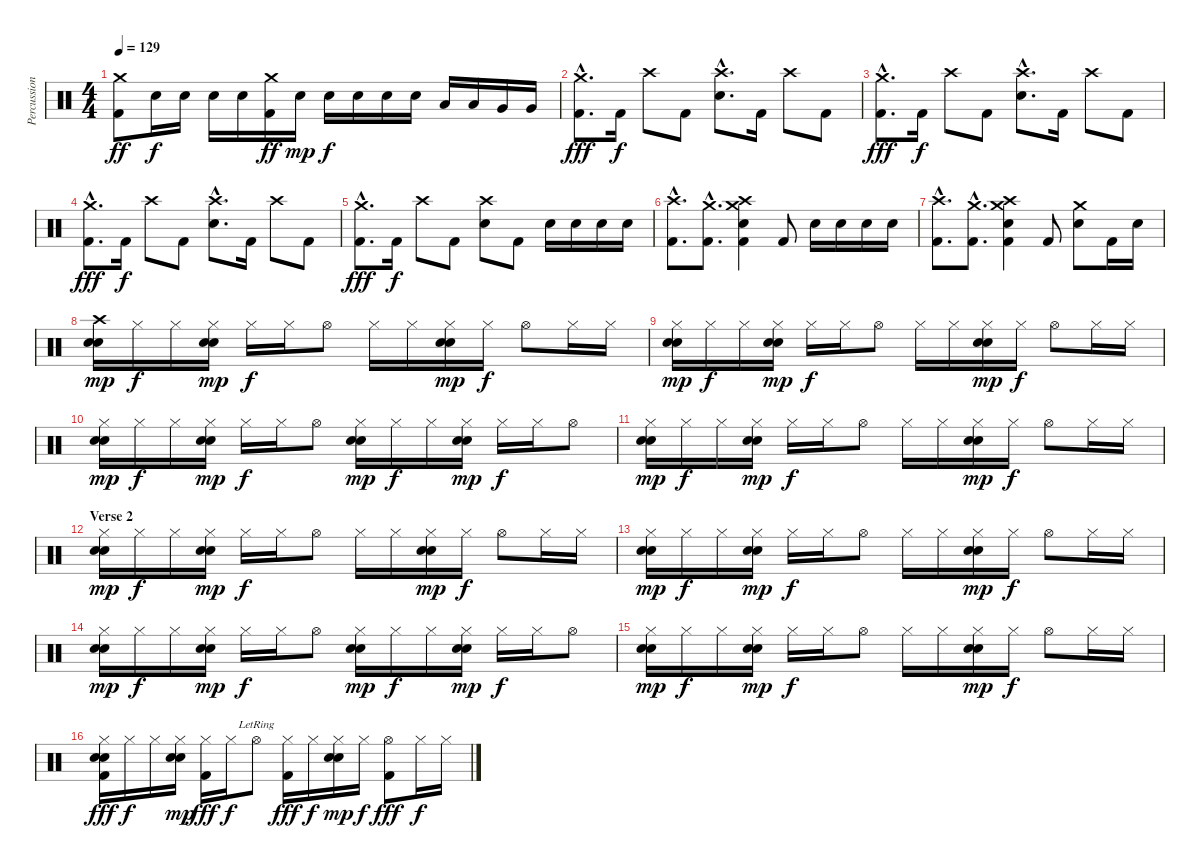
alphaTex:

\track ("Percussions" "Percussion") {instrument percussion}
\staff {score}
\articulation defaults
\ts (4 4)
\tempo 129
\clef neutral
\ks c
("Crash medium (hit)" "Kick (hit) 2").8{dy ff} "Snare (hit) 2".16{dy f} "Snare (hit) 2".16 "Snare (hit) 2".16 "Snare (hit) 2".16 ("Crash medium (hit)" "Kick (hit) 2").16{dy ff} "Snare (hit) 2".16{dy mp} "Snare (hit) 2".16{dy f} "Snare (hit) 2".16 "Snare (hit) 2".16 "Snare (hit) 2".16 "Low Tom (hit)".16 "Low Tom (hit)".16 "Very Low Tom (hit)".16 "Very Low Tom (hit)".16 |
("Crash medium (hit)"{hac} "Kick (hit) 2"{hac}).8{d dy fff} "Kick (hit) 2".16{dy f} "Crash high (hit)".8 "Kick (hit) 2".8 ("Crash high (hit)"{hac} "Snare (hit) 2"{hac}).8{d} "Kick (hit) 2".16 "Crash high (hit)".8 "Kick (hit) 2".8 |
("Crash medium (hit)"{hac} "Kick (hit) 2"{hac}).8{d dy fff} "Kick (hit) 2".16{dy f} "Crash high (hit)".8 "Kick (hit) 2".8 ("Crash high (hit)"{hac} "Snare (hit) 2"{hac}).8{d} "Kick (hit) 2".16 "Crash high (hit)".8 "Kick (hit) 2".8 |
("Crash medium (hit)"{hac} "Kick (hit) 2"{hac}).8{d dy fff} "Kick (hit) 2".16{dy f} "Crash high (hit)".8 "Kick (hit) 2".8 ("Crash high (hit)"{hac} "Snare (hit) 2"{hac}).8{d} "Kick (hit) 2".16 "Crash high (hit)".8 "Kick (hit) 2".8 |
("Crash medium (hit)"{hac} "Kick (hit) 2"{hac}).8{d dy fff} "Kick (hit) 2".16{dy f} "Crash high (hit)".8 "Kick (hit) 2".8 ("Crash high (hit)" "Snare (hit) 2").8 "Kick (hit) 2".8 "Snare (hit) 2".16 "Snare (hit) 2".16 "Snare (hit) 2".16 "Snare (hit) 2".16 |
("Crash high (hit)"{hac} "Kick (hit) 2"{hac}).8{d} ("Crash medium (hit)"{hac} "Kick (hit) 2"{hac}).8{d} ("Crash medium (hit)" "Crash high (hit)" "Snare (hit) 2" "Kick (hit) 2").4 "Kick (hit) 2".8 "Snare (hit) 2".16 "Snare (hit) 2".16 "Snare (hit) 2".16 "Snare (hit) 2".16 |
("Crash high (hit)"{hac} "Kick (hit) 2"{hac}).8{d} ("Crash medium (hit)"{hac} "Kick (hit) 2"{hac}).8{d} ("Crash medium (hit)" "Crash high (hit)" "Snare (hit) 2" "Kick (hit) 2").4 "Kick (hit) 2".8 ("Crash medium (hit)" "Snare (hit) 2").8 "Kick (hit) 2".16 "Snare (hit) 2".16 |
("Crash high (hit)" "Snare (hit) 2" "Electric Snare (hit)").16{dy mp} "Hi-Hat (closed)".16{dy f} "Hi-Hat (closed)".16 ("Hi-Hat (closed)" "Snare (hit) 2" "Electric Snare (hit)").16{dy mp} "Hi-Hat (closed)".16{dy f} "Hi-Hat (closed)".16 "Hi-Hat (open)".8 "Hi-Hat (closed)".16 "Hi-Hat (closed)".16 ("Hi-Hat (closed)" "Snare (hit) 2" "Electric Snare (hit)").16{dy mp} "Hi-Hat (closed)".16{dy f} "Hi-Hat (open)".8 "Hi-Hat (closed)".16 "Hi-Hat (closed)".16 |
("Hi-Hat (closed)" "Snare (hit) 2" "Electric Snare (hit)").16{dy mp} "Hi-Hat (closed)".16{dy f} "Hi-Hat (closed)".16 ("Hi-Hat (closed)" "Snare (hit) 2" "Electric Snare (hit)").16{dy mp} "Hi-Hat (closed)".16{dy f} "Hi-Hat (closed)".16 "Hi-Hat (open)".8 "Hi-Hat (closed)".16 "Hi-Hat (closed)".16 ("Hi-Hat (closed)" "Snare (hit) 2" "Electric Snare (hit)").16{dy mp} "Hi-Hat (closed)".16{dy f} "Hi-Hat (open)".8 "Hi-Hat (closed)".16 "Hi-Hat (closed)".16 |
("Hi-Hat (closed)" "Snare (hit) 2" "Electric Snare (hit)").16{dy mp} "Hi-Hat (closed)".16{dy f} "Hi-Hat (closed)".16 ("Hi-Hat (closed)" "Snare (hit) 2" "Electric Snare (hit)").16{dy mp} "Hi-Hat (closed)".16{dy f} "Hi-Hat (closed)".16 "Hi-Hat (open)".8 ("Hi-Hat (closed)" "Snare (hit) 2" "Electric Snare (hit)").16{dy mp} "Hi-Hat (closed)".16{dy f} "Hi-Hat (closed)".16 ("Hi-Hat (closed)" "Snare (hit) 2" "Electric Snare (hit)").16{dy mp} "Hi-Hat (closed)".16{dy f} "Hi-Hat (closed)".16 "Hi-Hat (open)".8 |
("Hi-Hat (closed)" "Snare (hit) 2" "Electric Snare (hit)").16{dy mp} "Hi-Hat (closed)".16{dy f} "Hi-Hat (closed)".16 ("Hi-Hat (closed)" "Snare (hit) 2" "Electric Snare (hit)").16{dy mp} "Hi-Hat (closed)".16{dy f} "Hi-Hat (closed)".16 "Hi-Hat (open)".8 "Hi-Hat (closed)".16 "Hi-Hat (closed)".16 ("Hi-Hat (closed)" "Snare (hit) 2" "Electric Snare (hit)").16{dy mp} "Hi-Hat (closed)".16{dy f} "Hi-Hat (open)".8 "Hi-Hat (closed)".16 "Hi-Hat (closed)".16 |
\section ("" "Verse 2")
("Hi-Hat (closed)" "Snare (hit) 2" "Electric Snare (hit)").16{dy mp} "Hi-Hat (closed)".16{dy f} "Hi-Hat (closed)".16 ("Hi-Hat (closed)" "Snare (hit) 2" "Electric Snare (hit)").16{dy mp} "Hi-Hat (closed)".16{dy f} "Hi-Hat (closed)".16 "Hi-Hat (open)".8 "Hi-Hat (closed)".16 "Hi-Hat (closed)".16 ("Hi-Hat (closed)" "Snare (hit) 2" "Electric Snare (hit)").16{dy mp} "Hi-Hat (closed)".16{dy f} "Hi-Hat (open)".8 "Hi-Hat (closed)".16 "Hi-Hat (closed)".16 |
("Hi-Hat (closed)" "Snare (hit) 2" "Electric Snare (hit)").16{dy mp} "Hi-Hat (closed)".16{dy f} "Hi-Hat (closed)".16 ("Hi-Hat (closed)" "Snare (hit) 2" "Electric Snare (hit)").16{dy mp} "Hi-Hat (closed)".16{dy f} "Hi-Hat (closed)".16 "Hi-Hat (open)".8 "Hi-Hat (closed)".16 "Hi-Hat (closed)".16 ("Hi-Hat (closed)" "Snare (hit) 2" "Electric Snare (hit)").16{dy mp} "Hi-Hat (closed)".16{dy f} "Hi-Hat (open)".8 "Hi-Hat (closed)".16 "Hi-Hat (closed)".16 |
("Hi-Hat (closed)" "Snare (hit) 2" "Electric Snare (hit)").16{dy mp} "Hi-Hat (closed)".16{dy f} "Hi-Hat (closed)".16 ("Hi-Hat (closed)" "Snare (hit) 2" "Electric Snare (hit)").16{dy mp} "Hi-Hat (closed)".16{dy f} "Hi-Hat (closed)".16 "Hi-Hat (open)".8 ("Hi-Hat (closed)" "Snare (hit) 2" "Electric Snare (hit)").16{dy mp} "Hi-Hat (closed)".16{dy f} "Hi-Hat (closed)".16 ("Hi-Hat (closed)" "Snare (hit) 2" "Electric Snare (hit)").16{dy mp} "Hi-Hat (closed)".16{dy f} "Hi-Hat (closed)".16 "Hi-Hat (open)".8 |
("Hi-Hat (closed)" "Snare (hit) 2" "Electric Snare (hit)").16{dy mp} "Hi-Hat (closed)".16{dy f} "Hi-Hat (closed)".16 ("Hi-Hat (closed)" "Snare (hit) 2" "Electric Snare (hit)").16{dy mp} "Hi-Hat (closed)".16{dy f} "Hi-Hat (closed)".16 "Hi-Hat (open)".8 "Hi-Hat (closed)".16 "Hi-Hat (closed)".16 ("Hi-Hat (closed)" "Snare (hit) 2" "Electric Snare (hit)").16{dy mp} "Hi-Hat (closed)".16{dy f} "Hi-Hat (open)".8 "Hi-Hat (closed)".16 "Hi-Hat (closed)".16 |
("Hi-Hat (closed)" "Snare (hit) 2" "Electric Snare (hit)" "Kick (hit) 2").16{dy fff} "Hi-Hat (closed)".16{dy f} "Hi-Hat (closed)".16 ("Hi-Hat (closed)" "Snare (hit) 2" "Electric Snare (hit)").16{dy mp} ("Hi-Hat (closed)" "Kick (hit) 2").16{dy fff} "Hi-Hat (closed)".16{dy f} "Hi-Hat (open)"{lr}.8 ("Hi-Hat (closed)" "Kick (hit) 2").16{dy fff} "Hi-Hat (closed)".16{dy f} ("Hi-Hat (closed)" "Snare (hit) 2" "Electric Snare (hit)").16{dy mp} "Hi-Hat (closed)".16{dy f} ("Hi-Hat (open)" "Kick (hit) 2").8{dy fff} "Hi-Hat (closed)".16{dy f} "Hi-Hat (closed)".16
